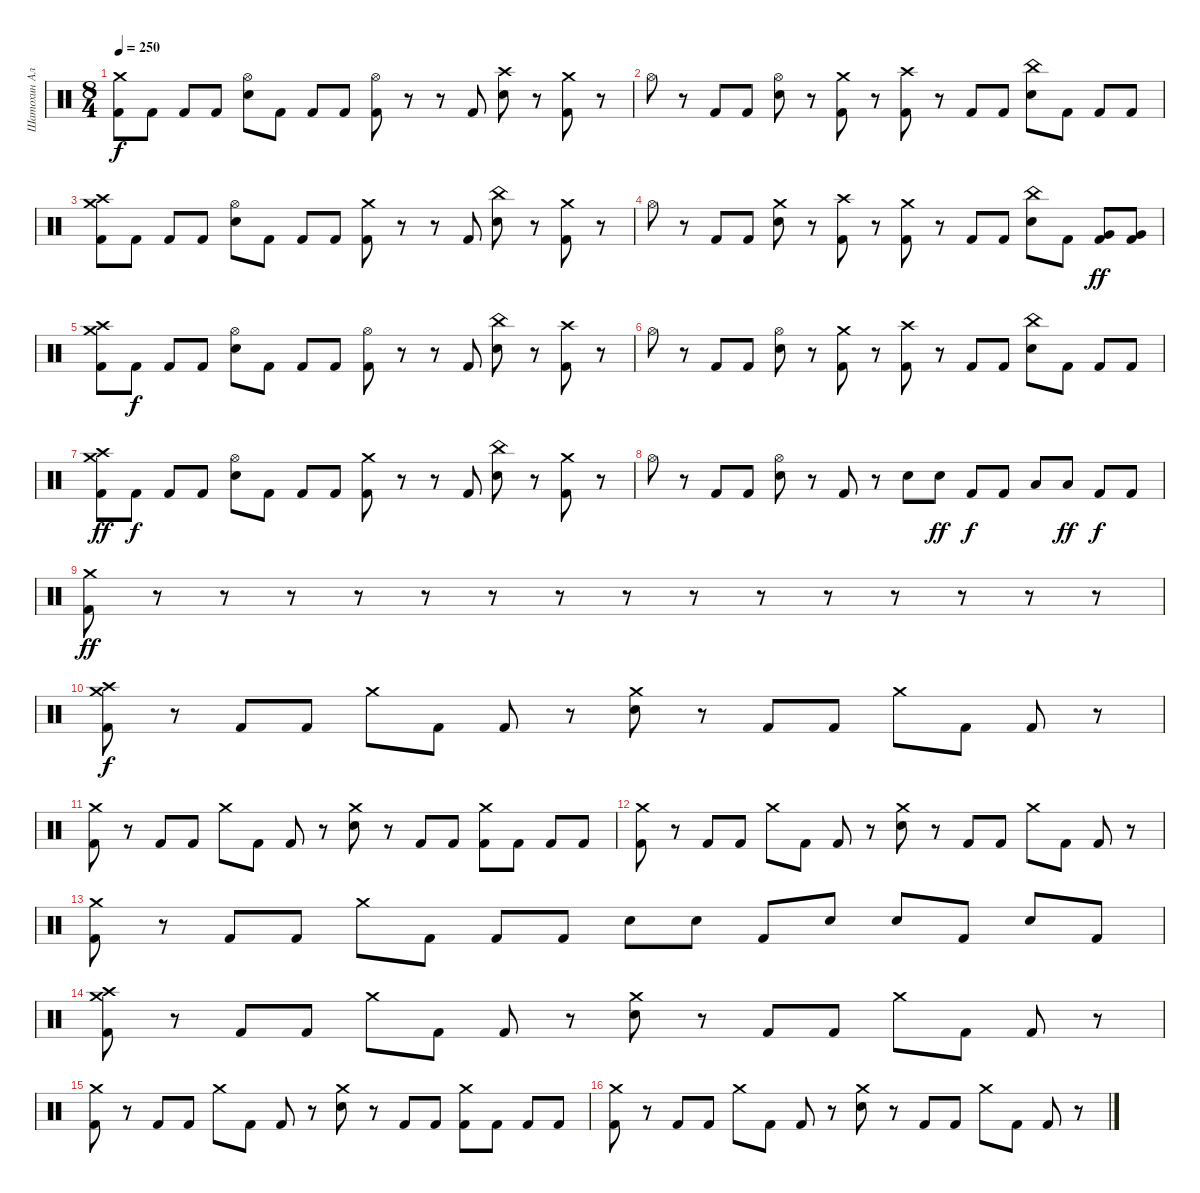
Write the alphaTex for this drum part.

\track ("Шатохин Алексей" "Шатохин Ал") {instrument percussion}
\staff {score}
\articulation defaults
\ts (8 4)
\tempo 250
\clef neutral
\ks c
("Kick (hit) 2" "Crash medium (hit)").8{dy f} "Kick (hit) 2".8 "Kick (hit) 2".8 "Kick (hit) 2".8 ("Electric Snare (hit)" "Hi-Hat (open)").8 "Kick (hit) 2".8 "Kick (hit) 2".8 "Kick (hit) 2".8 ("Kick (hit) 2" "Hi-Hat (open)").8 r.8 r.8 "Kick (hit) 2".8 ("Electric Snare (hit)" "Crash high (hit)").8 r.8 ("Kick (hit) 2" "Crash medium (hit)").8 r.8 |
"Hi-Hat (open)".8 r.8 "Kick (hit) 2".8 "Kick (hit) 2".8 ("Electric Snare (hit)" "Hi-Hat (open)").8 r.8 ("Kick (hit) 2" "Crash medium (hit)").8 r.8 ("Kick (hit) 2" "Crash high (hit)").8 r.8 "Kick (hit) 2".8 "Kick (hit) 2".8 ("Electric Snare (hit)" "China (hit)").8 "Kick (hit) 2".8 "Kick (hit) 2".8 "Kick (hit) 2".8 |
("Kick (hit) 2" "Crash medium (hit)" "Crash high (hit)").8 "Kick (hit) 2".8 "Kick (hit) 2".8 "Kick (hit) 2".8 ("Electric Snare (hit)" "Hi-Hat (open)").8 "Kick (hit) 2".8 "Kick (hit) 2".8 "Kick (hit) 2".8 ("Kick (hit) 2" "Crash medium (hit)").8 r.8 r.8 "Kick (hit) 2".8 ("Electric Snare (hit)" "China (hit)").8 r.8 ("Kick (hit) 2" "Crash medium (hit)").8 r.8 |
"Hi-Hat (open)".8 r.8 "Kick (hit) 2".8 "Kick (hit) 2".8 ("Electric Snare (hit)" "Crash medium (hit)").8 r.8 ("Kick (hit) 2" "Crash high (hit)").8 r.8 ("Kick (hit) 2" "Crash medium (hit)").8 r.8 "Kick (hit) 2".8 "Kick (hit) 2".8 ("Electric Snare (hit)" "China (hit)").8 "Kick (hit) 2".8 ("Kick (hit) 2" "Very Low Tom (hit)").8{dy ff} ("Kick (hit) 2" "Very Low Tom (hit)").8 |
("Kick (hit) 2" "Crash medium (hit)" "Crash high (hit)").8 "Kick (hit) 2".8{dy f} "Kick (hit) 2".8 "Kick (hit) 2".8 ("Electric Snare (hit)" "Hi-Hat (open)").8 "Kick (hit) 2".8 "Kick (hit) 2".8 "Kick (hit) 2".8 ("Kick (hit) 2" "Hi-Hat (open)").8 r.8 r.8 "Kick (hit) 2".8 ("Electric Snare (hit)" "China (hit)").8 r.8 ("Kick (hit) 2" "Crash high (hit)").8 r.8 |
"Hi-Hat (open)".8 r.8 "Kick (hit) 2".8 "Kick (hit) 2".8 ("Electric Snare (hit)" "Hi-Hat (open)").8 r.8 ("Kick (hit) 2" "Crash medium (hit)").8 r.8 ("Kick (hit) 2" "Crash high (hit)").8 r.8 "Kick (hit) 2".8 "Kick (hit) 2".8 ("Electric Snare (hit)" "China (hit)").8 "Kick (hit) 2".8 "Kick (hit) 2".8 "Kick (hit) 2".8 |
("Kick (hit) 2" "Crash medium (hit)" "Crash high (hit)").8{dy ff} "Kick (hit) 2".8{dy f} "Kick (hit) 2".8 "Kick (hit) 2".8 ("Electric Snare (hit)" "Hi-Hat (open)").8 "Kick (hit) 2".8 "Kick (hit) 2".8 "Kick (hit) 2".8 ("Kick (hit) 2" "Crash medium (hit)").8 r.8 r.8 "Kick (hit) 2".8 ("Electric Snare (hit)" "China (hit)").8 r.8 ("Kick (hit) 2" "Crash medium (hit)").8 r.8 |
"Hi-Hat (open)".8 r.8 "Kick (hit) 2".8 "Kick (hit) 2".8 ("Electric Snare (hit)" "Hi-Hat (open)").8 r.8 "Kick (hit) 2".8 r.8 "Electric Snare (hit)".8 "Electric Snare (hit)".8{dy ff} "Kick (hit) 2".8{dy f} "Kick (hit) 2".8 "Low Tom (hit)".8 "Low Tom (hit)".8{dy ff} "Kick (hit) 2".8{dy f} "Kick (hit) 2".8 |
("Crash medium (hit)" "Kick (hit) 2").8{dy ff} r.8 r.8 r.8 r.8 r.8 r.8 r.8 r.8 r.8 r.8 r.8 r.8 r.8 r.8 r.8 |
("Crash high (hit)" "Crash medium (hit)" "Kick (hit) 2").8{dy f} r.8 "Kick (hit) 2".8 "Kick (hit) 2".8 "Crash medium (hit)".8 "Kick (hit) 2".8 "Kick (hit) 2".8 r.8 ("Crash medium (hit)" "Electric Snare (hit)").8 r.8 "Kick (hit) 2".8 "Kick (hit) 2".8 "Crash medium (hit)".8 "Kick (hit) 2".8 "Kick (hit) 2".8 r.8 |
("Crash medium (hit)" "Kick (hit) 2").8 r.8 "Kick (hit) 2".8 "Kick (hit) 2".8 "Crash medium (hit)".8 "Kick (hit) 2".8 "Kick (hit) 2".8 r.8 ("Crash medium (hit)" "Electric Snare (hit)").8 r.8 "Kick (hit) 2".8 "Kick (hit) 2".8 ("Crash medium (hit)" "Kick (hit) 2").8 "Kick (hit) 2".8 "Kick (hit) 2".8 "Kick (hit) 2".8 |
("Crash medium (hit)" "Kick (hit) 2").8 r.8 "Kick (hit) 2".8 "Kick (hit) 2".8 "Crash medium (hit)".8 "Kick (hit) 2".8 "Kick (hit) 2".8 r.8 ("Crash medium (hit)" "Electric Snare (hit)").8 r.8 "Kick (hit) 2".8 "Kick (hit) 2".8 "Crash medium (hit)".8 "Kick (hit) 2".8 "Kick (hit) 2".8 r.8 |
("Crash medium (hit)" "Kick (hit) 2").8 r.8 "Kick (hit) 2".8 "Kick (hit) 2".8 "Crash medium (hit)".8 "Kick (hit) 2".8 "Kick (hit) 2".8 "Kick (hit) 2".8 "Electric Snare (hit)".8 "Electric Snare (hit)".8 "Kick (hit) 2".8 "Electric Snare (hit)".8 "Electric Snare (hit)".8 "Kick (hit) 2".8 "Electric Snare (hit)".8 "Kick (hit) 2".8 |
("Crash high (hit)" "Crash medium (hit)" "Kick (hit) 2").8 r.8 "Kick (hit) 2".8 "Kick (hit) 2".8 "Crash medium (hit)".8 "Kick (hit) 2".8 "Kick (hit) 2".8 r.8 ("Crash medium (hit)" "Electric Snare (hit)").8 r.8 "Kick (hit) 2".8 "Kick (hit) 2".8 "Crash medium (hit)".8 "Kick (hit) 2".8 "Kick (hit) 2".8 r.8 |
("Crash medium (hit)" "Kick (hit) 2").8 r.8 "Kick (hit) 2".8 "Kick (hit) 2".8 "Crash medium (hit)".8 "Kick (hit) 2".8 "Kick (hit) 2".8 r.8 ("Crash medium (hit)" "Electric Snare (hit)").8 r.8 "Kick (hit) 2".8 "Kick (hit) 2".8 ("Crash medium (hit)" "Kick (hit) 2").8 "Kick (hit) 2".8 "Kick (hit) 2".8 "Kick (hit) 2".8 |
("Crash medium (hit)" "Kick (hit) 2").8 r.8 "Kick (hit) 2".8 "Kick (hit) 2".8 "Crash medium (hit)".8 "Kick (hit) 2".8 "Kick (hit) 2".8 r.8 ("Crash medium (hit)" "Electric Snare (hit)").8 r.8 "Kick (hit) 2".8 "Kick (hit) 2".8 "Crash medium (hit)".8 "Kick (hit) 2".8 "Kick (hit) 2".8 r.8
